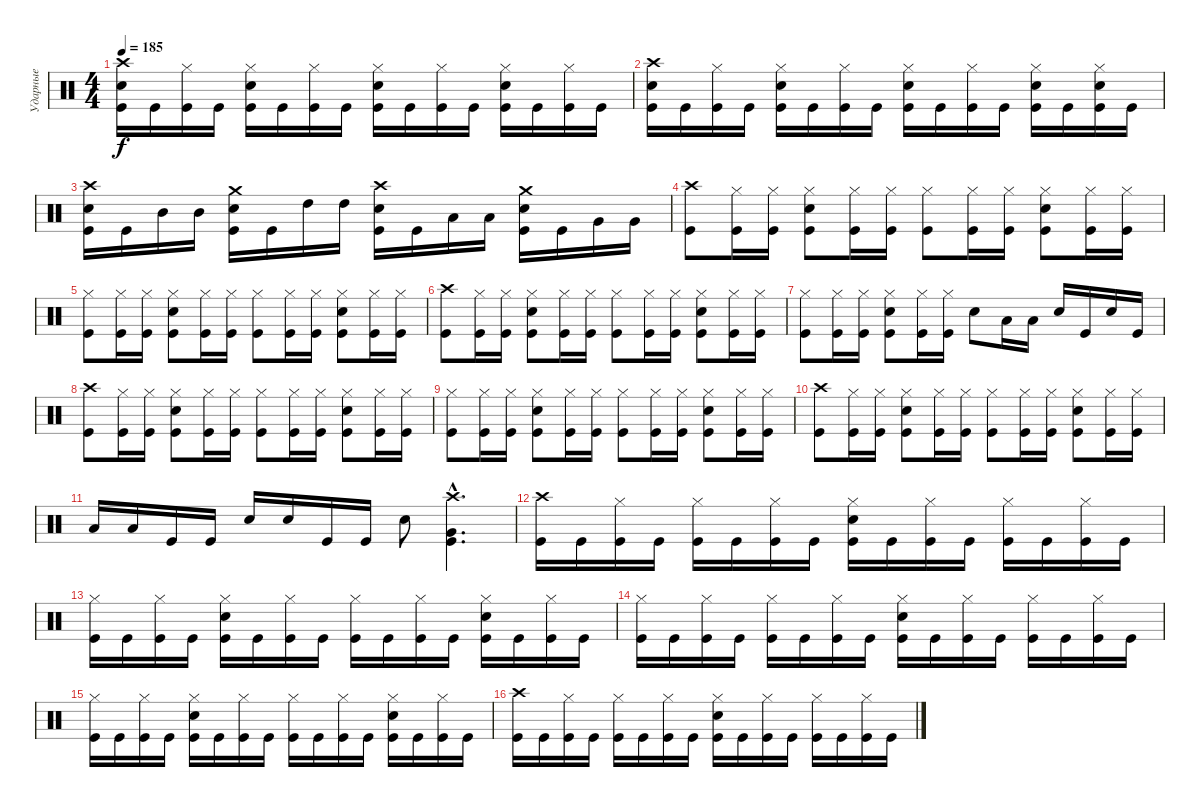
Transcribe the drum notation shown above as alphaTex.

\track ("Ударные" "Ударные") {instrument percussion}
\staff {score}
\articulation defaults
\ts (4 4)
\tempo 185
\clef neutral
\ks c
("Crash high (hit)" "Electric Snare (hit)" "Kick (hit)").16{dy f} "Kick (hit)".16 ("Hi-Hat (closed)" "Kick (hit)").16 "Kick (hit)".16 ("Hi-Hat (closed)" "Electric Snare (hit)" "Kick (hit)").16 "Kick (hit)".16 ("Hi-Hat (closed)" "Kick (hit)").16 "Kick (hit)".16 ("Hi-Hat (closed)" "Electric Snare (hit)" "Kick (hit)").16 "Kick (hit)".16 ("Hi-Hat (closed)" "Kick (hit)").16 "Kick (hit)".16 ("Hi-Hat (closed)" "Electric Snare (hit)" "Kick (hit)").16 "Kick (hit)".16 ("Hi-Hat (closed)" "Kick (hit)").16 "Kick (hit)".16 |
("Crash high (hit)" "Electric Snare (hit)" "Kick (hit)").16 "Kick (hit)".16 ("Hi-Hat (closed)" "Kick (hit)").16 "Kick (hit)".16 ("Hi-Hat (closed)" "Electric Snare (hit)" "Kick (hit)").16 "Kick (hit)".16 ("Hi-Hat (closed)" "Kick (hit)").16 "Kick (hit)".16 ("Hi-Hat (closed)" "Electric Snare (hit)" "Kick (hit)").16 "Kick (hit)".16 ("Hi-Hat (closed)" "Kick (hit)").16 "Kick (hit)".16 ("Hi-Hat (closed)" "Electric Snare (hit)" "Kick (hit)").16 "Kick (hit)".16 ("Hi-Hat (closed)" "Electric Snare (hit)" "Kick (hit)").16 "Kick (hit)".16 |
("Crash high (hit)" "Electric Snare (hit)" "Kick (hit)").16 "Kick (hit)".16 "Mid Tom (hit)".16 "Mid Tom (hit)".16 ("Crash medium (hit)" "Electric Snare (hit)" "Kick (hit)").16 "Kick (hit)".16 "High Tom (hit)".16 "High Tom (hit)".16 ("Crash high (hit)" "Electric Snare (hit)" "Kick (hit)").16 "Kick (hit)".16 "Low Tom (hit)".16 "Low Tom (hit)".16 ("Crash medium (hit)" "Electric Snare (hit)" "Kick (hit)").16 "Kick (hit)".16 "Very Low Tom (hit)".16 "Very Low Tom (hit)".16 |
("Crash high (hit)" "Kick (hit)").8 ("Hi-Hat (closed)" "Kick (hit)").16 ("Hi-Hat (closed)" "Kick (hit)").16 ("Hi-Hat (closed)" "Electric Snare (hit)" "Kick (hit)").8 ("Hi-Hat (closed)" "Kick (hit)").16 ("Hi-Hat (closed)" "Kick (hit)").16 ("Hi-Hat (closed)" "Kick (hit)").8 ("Hi-Hat (closed)" "Kick (hit)").16 ("Hi-Hat (closed)" "Kick (hit)").16 ("Hi-Hat (closed)" "Electric Snare (hit)" "Kick (hit)").8 ("Hi-Hat (closed)" "Kick (hit)").16 ("Hi-Hat (closed)" "Kick (hit)").16 |
("Hi-Hat (closed)" "Kick (hit)").8 ("Hi-Hat (closed)" "Kick (hit)").16 ("Hi-Hat (closed)" "Kick (hit)").16 ("Hi-Hat (closed)" "Electric Snare (hit)" "Kick (hit)").8 ("Hi-Hat (closed)" "Kick (hit)").16 ("Hi-Hat (closed)" "Kick (hit)").16 ("Hi-Hat (closed)" "Kick (hit)").8 ("Hi-Hat (closed)" "Kick (hit)").16 ("Hi-Hat (closed)" "Kick (hit)").16 ("Hi-Hat (closed)" "Electric Snare (hit)" "Kick (hit)").8 ("Hi-Hat (closed)" "Kick (hit)").16 ("Hi-Hat (closed)" "Kick (hit)").16 |
("Crash high (hit)" "Kick (hit)").8 ("Hi-Hat (closed)" "Kick (hit)").16 ("Hi-Hat (closed)" "Kick (hit)").16 ("Hi-Hat (closed)" "Electric Snare (hit)" "Kick (hit)").8 ("Hi-Hat (closed)" "Kick (hit)").16 ("Hi-Hat (closed)" "Kick (hit)").16 ("Hi-Hat (closed)" "Kick (hit)").8 ("Hi-Hat (closed)" "Kick (hit)").16 ("Hi-Hat (closed)" "Kick (hit)").16 ("Hi-Hat (closed)" "Electric Snare (hit)" "Kick (hit)").8 ("Hi-Hat (closed)" "Kick (hit)").16 ("Hi-Hat (closed)" "Kick (hit)").16 |
("Hi-Hat (closed)" "Kick (hit)").8 ("Hi-Hat (closed)" "Kick (hit)").16 ("Hi-Hat (closed)" "Kick (hit)").16 ("Hi-Hat (closed)" "Electric Snare (hit)" "Kick (hit)").8 ("Hi-Hat (closed)" "Kick (hit)").16 ("Hi-Hat (closed)" "Kick (hit)").16 "Electric Snare (hit)".8 "Low Tom (hit)".16 "Low Tom (hit)".16 "Electric Snare (hit)".16 "Kick (hit)".16 "Electric Snare (hit)".16 "Kick (hit)".16 |
("Crash high (hit)" "Kick (hit)").8 ("Hi-Hat (closed)" "Kick (hit)").16 ("Hi-Hat (closed)" "Kick (hit)").16 ("Hi-Hat (closed)" "Electric Snare (hit)" "Kick (hit)").8 ("Hi-Hat (closed)" "Kick (hit)").16 ("Hi-Hat (closed)" "Kick (hit)").16 ("Hi-Hat (closed)" "Kick (hit)").8 ("Hi-Hat (closed)" "Kick (hit)").16 ("Hi-Hat (closed)" "Kick (hit)").16 ("Hi-Hat (closed)" "Electric Snare (hit)" "Kick (hit)").8 ("Hi-Hat (closed)" "Kick (hit)").16 ("Hi-Hat (closed)" "Kick (hit)").16 |
("Hi-Hat (closed)" "Kick (hit)").8 ("Hi-Hat (closed)" "Kick (hit)").16 ("Hi-Hat (closed)" "Kick (hit)").16 ("Hi-Hat (closed)" "Electric Snare (hit)" "Kick (hit)").8 ("Hi-Hat (closed)" "Kick (hit)").16 ("Hi-Hat (closed)" "Kick (hit)").16 ("Hi-Hat (closed)" "Kick (hit)").8 ("Hi-Hat (closed)" "Kick (hit)").16 ("Hi-Hat (closed)" "Kick (hit)").16 ("Hi-Hat (closed)" "Electric Snare (hit)" "Kick (hit)").8 ("Hi-Hat (closed)" "Kick (hit)").16 ("Hi-Hat (closed)" "Kick (hit)").16 |
("Crash high (hit)" "Kick (hit)").8 ("Hi-Hat (closed)" "Kick (hit)").16 ("Hi-Hat (closed)" "Kick (hit)").16 ("Hi-Hat (closed)" "Electric Snare (hit)" "Kick (hit)").8 ("Hi-Hat (closed)" "Kick (hit)").16 ("Hi-Hat (closed)" "Kick (hit)").16 ("Hi-Hat (closed)" "Kick (hit)").8 ("Hi-Hat (closed)" "Kick (hit)").16 ("Hi-Hat (closed)" "Kick (hit)").16 ("Hi-Hat (closed)" "Electric Snare (hit)" "Kick (hit)").8 ("Hi-Hat (closed)" "Kick (hit)").16 ("Hi-Hat (closed)" "Kick (hit)").16 |
"Low Tom (hit)".16 "Low Tom (hit)".16 "Kick (hit)".16 "Kick (hit)".16 "Electric Snare (hit)".16 "Electric Snare (hit)".16 "Kick (hit)".16 "Kick (hit)".16 "Electric Snare (hit)".8 ("Crash high (hit)"{hac} "Very Low Tom (hit)"{hac} "Kick (hit)"{hac}).4{d} |
("Crash high (hit)" "Kick (hit)").16 "Kick (hit)".16 ("Hi-Hat (closed)" "Kick (hit)").16 "Kick (hit)".16 ("Hi-Hat (closed)" "Kick (hit)").16 "Kick (hit)".16 ("Hi-Hat (closed)" "Kick (hit)").16 "Kick (hit)".16 ("Hi-Hat (closed)" "Electric Snare (hit)" "Kick (hit)").16 "Kick (hit)".16 ("Hi-Hat (closed)" "Kick (hit)").16 "Kick (hit)".16 ("Hi-Hat (closed)" "Kick (hit)").16 "Kick (hit)".16 ("Hi-Hat (closed)" "Kick (hit)").16 "Kick (hit)".16 |
("Hi-Hat (closed)" "Kick (hit)").16 "Kick (hit)".16 ("Hi-Hat (closed)" "Kick (hit)").16 "Kick (hit)".16 ("Hi-Hat (closed)" "Electric Snare (hit)" "Kick (hit)").16 "Kick (hit)".16 ("Hi-Hat (closed)" "Kick (hit)").16 "Kick (hit)".16 ("Hi-Hat (closed)" "Kick (hit)").16 "Kick (hit)".16 ("Hi-Hat (closed)" "Kick (hit)").16 "Kick (hit)".16 ("Hi-Hat (closed)" "Electric Snare (hit)" "Kick (hit)").16 "Kick (hit)".16 ("Hi-Hat (closed)" "Kick (hit)").16 "Kick (hit)".16 |
("Hi-Hat (closed)" "Kick (hit)").16 "Kick (hit)".16 ("Hi-Hat (closed)" "Kick (hit)").16 "Kick (hit)".16 ("Hi-Hat (closed)" "Kick (hit)").16 "Kick (hit)".16 ("Hi-Hat (closed)" "Kick (hit)").16 "Kick (hit)".16 ("Hi-Hat (closed)" "Electric Snare (hit)" "Kick (hit)").16 "Kick (hit)".16 ("Hi-Hat (closed)" "Kick (hit)").16 "Kick (hit)".16 ("Hi-Hat (closed)" "Kick (hit)").16 "Kick (hit)".16 ("Hi-Hat (closed)" "Kick (hit)").16 "Kick (hit)".16 |
("Hi-Hat (closed)" "Kick (hit)").16 "Kick (hit)".16 ("Hi-Hat (closed)" "Kick (hit)").16 "Kick (hit)".16 ("Hi-Hat (closed)" "Electric Snare (hit)" "Kick (hit)").16 "Kick (hit)".16 ("Hi-Hat (closed)" "Kick (hit)").16 "Kick (hit)".16 ("Hi-Hat (closed)" "Kick (hit)").16 "Kick (hit)".16 ("Hi-Hat (closed)" "Kick (hit)").16 "Kick (hit)".16 ("Hi-Hat (closed)" "Electric Snare (hit)" "Kick (hit)").16 "Kick (hit)".16 ("Hi-Hat (closed)" "Kick (hit)").16 "Kick (hit)".16 |
("Crash high (hit)" "Kick (hit)").16 "Kick (hit)".16 ("Hi-Hat (closed)" "Kick (hit)").16 "Kick (hit)".16 ("Hi-Hat (closed)" "Kick (hit)").16 "Kick (hit)".16 ("Hi-Hat (closed)" "Kick (hit)").16 "Kick (hit)".16 ("Hi-Hat (closed)" "Electric Snare (hit)" "Kick (hit)").16 "Kick (hit)".16 ("Hi-Hat (closed)" "Kick (hit)").16 "Kick (hit)".16 ("Hi-Hat (closed)" "Kick (hit)").16 "Kick (hit)".16 ("Hi-Hat (closed)" "Kick (hit)").16 "Kick (hit)".16
